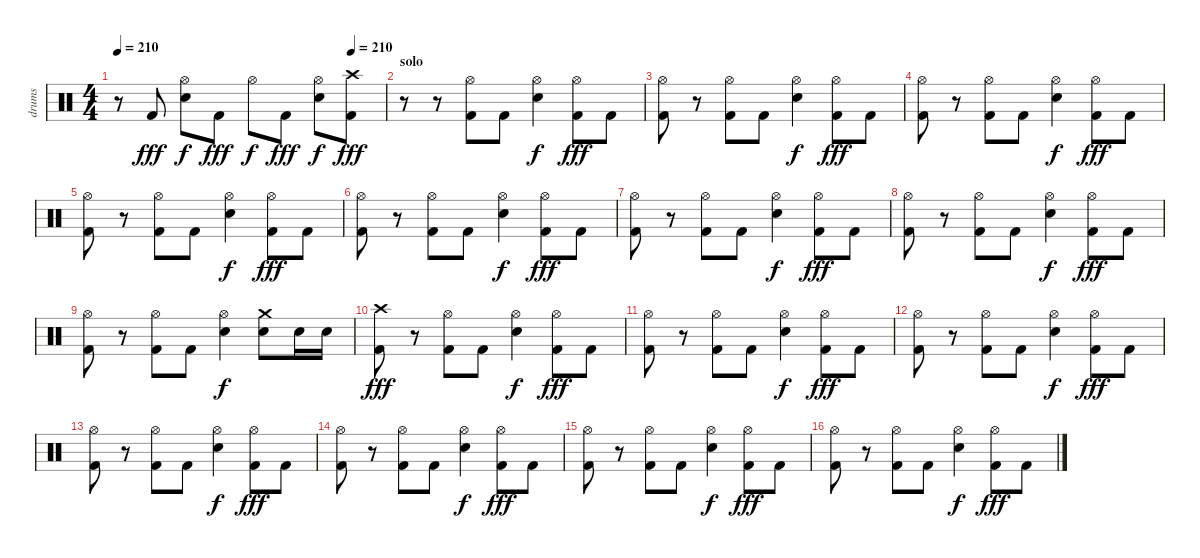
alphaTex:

\track ("drums" "drums") {instrument percussion}
\staff {score}
\articulation defaults
\ts (4 4)
\tempo 210
\tempo (210 0.875)
\clef neutral
\ks c
r.8{dy fff} "Kick (hit) 2".8 ("Hi-Hat (open)" "Snare (hit) 2").8{dy f} "Kick (hit) 2".8{dy fff} "Hi-Hat (open)".8{dy f} "Kick (hit) 2".8{dy fff} ("Hi-Hat (open)" "Snare (hit) 2").8{dy f} ("Crash high (hit)" "Kick (hit) 2").8{dy fff} |
\section ("" "solo")
r.8 r.8 ("Hi-Hat (open)" "Kick (hit) 2").8 "Kick (hit) 2".8 ("Hi-Hat (open)" "Snare (hit) 2").4{dy f} ("Hi-Hat (open)" "Kick (hit) 2").8{dy fff} "Kick (hit) 2".8 |
("Hi-Hat (open)" "Kick (hit) 2").8 r.8 ("Hi-Hat (open)" "Kick (hit) 2").8 "Kick (hit) 2".8 ("Hi-Hat (open)" "Snare (hit) 2").4{dy f} ("Hi-Hat (open)" "Kick (hit) 2").8{dy fff} "Kick (hit) 2".8 |
("Hi-Hat (open)" "Kick (hit) 2").8 r.8 ("Hi-Hat (open)" "Kick (hit) 2").8 "Kick (hit) 2".8 ("Hi-Hat (open)" "Snare (hit) 2").4{dy f} ("Hi-Hat (open)" "Kick (hit) 2").8{dy fff} "Kick (hit) 2".8 |
("Hi-Hat (open)" "Kick (hit) 2").8 r.8 ("Hi-Hat (open)" "Kick (hit) 2").8 "Kick (hit) 2".8 ("Hi-Hat (open)" "Snare (hit) 2").4{dy f} ("Hi-Hat (open)" "Kick (hit) 2").8{dy fff} "Kick (hit) 2".8 |
("Hi-Hat (open)" "Kick (hit) 2").8 r.8 ("Hi-Hat (open)" "Kick (hit) 2").8 "Kick (hit) 2".8 ("Hi-Hat (open)" "Snare (hit) 2").4{dy f} ("Hi-Hat (open)" "Kick (hit) 2").8{dy fff} "Kick (hit) 2".8 |
("Hi-Hat (open)" "Kick (hit) 2").8 r.8 ("Hi-Hat (open)" "Kick (hit) 2").8 "Kick (hit) 2".8 ("Hi-Hat (open)" "Snare (hit) 2").4{dy f} ("Hi-Hat (open)" "Kick (hit) 2").8{dy fff} "Kick (hit) 2".8 |
("Hi-Hat (open)" "Kick (hit) 2").8 r.8 ("Hi-Hat (open)" "Kick (hit) 2").8 "Kick (hit) 2".8 ("Hi-Hat (open)" "Snare (hit) 2").4{dy f} ("Hi-Hat (open)" "Kick (hit) 2").8{dy fff} "Kick (hit) 2".8 |
("Hi-Hat (open)" "Kick (hit) 2").8 r.8 ("Hi-Hat (open)" "Kick (hit) 2").8 "Kick (hit) 2".8 ("Hi-Hat (open)" "Snare (hit) 2").4{dy f} ("Crash medium (hit)" "Snare (hit) 2").8 "Snare (hit) 2".16 "Snare (hit) 2".16 |
("Crash high (hit)" "Kick (hit) 2").8{dy fff} r.8 ("Hi-Hat (open)" "Kick (hit) 2").8 "Kick (hit) 2".8 ("Hi-Hat (open)" "Snare (hit) 2").4{dy f} ("Hi-Hat (open)" "Kick (hit) 2").8{dy fff} "Kick (hit) 2".8 |
("Hi-Hat (open)" "Kick (hit) 2").8 r.8 ("Hi-Hat (open)" "Kick (hit) 2").8 "Kick (hit) 2".8 ("Hi-Hat (open)" "Snare (hit) 2").4{dy f} ("Hi-Hat (open)" "Kick (hit) 2").8{dy fff} "Kick (hit) 2".8 |
("Hi-Hat (open)" "Kick (hit) 2").8 r.8 ("Hi-Hat (open)" "Kick (hit) 2").8 "Kick (hit) 2".8 ("Hi-Hat (open)" "Snare (hit) 2").4{dy f} ("Hi-Hat (open)" "Kick (hit) 2").8{dy fff} "Kick (hit) 2".8 |
("Hi-Hat (open)" "Kick (hit) 2").8 r.8 ("Hi-Hat (open)" "Kick (hit) 2").8 "Kick (hit) 2".8 ("Hi-Hat (open)" "Snare (hit) 2").4{dy f} ("Hi-Hat (open)" "Kick (hit) 2").8{dy fff} "Kick (hit) 2".8 |
("Hi-Hat (open)" "Kick (hit) 2").8 r.8 ("Hi-Hat (open)" "Kick (hit) 2").8 "Kick (hit) 2".8 ("Hi-Hat (open)" "Snare (hit) 2").4{dy f} ("Hi-Hat (open)" "Kick (hit) 2").8{dy fff} "Kick (hit) 2".8 |
("Hi-Hat (open)" "Kick (hit) 2").8 r.8 ("Hi-Hat (open)" "Kick (hit) 2").8 "Kick (hit) 2".8 ("Hi-Hat (open)" "Snare (hit) 2").4{dy f} ("Hi-Hat (open)" "Kick (hit) 2").8{dy fff} "Kick (hit) 2".8 |
("Hi-Hat (open)" "Kick (hit) 2").8 r.8 ("Hi-Hat (open)" "Kick (hit) 2").8 "Kick (hit) 2".8 ("Hi-Hat (open)" "Snare (hit) 2").4{dy f} ("Hi-Hat (open)" "Kick (hit) 2").8{dy fff} "Kick (hit) 2".8
